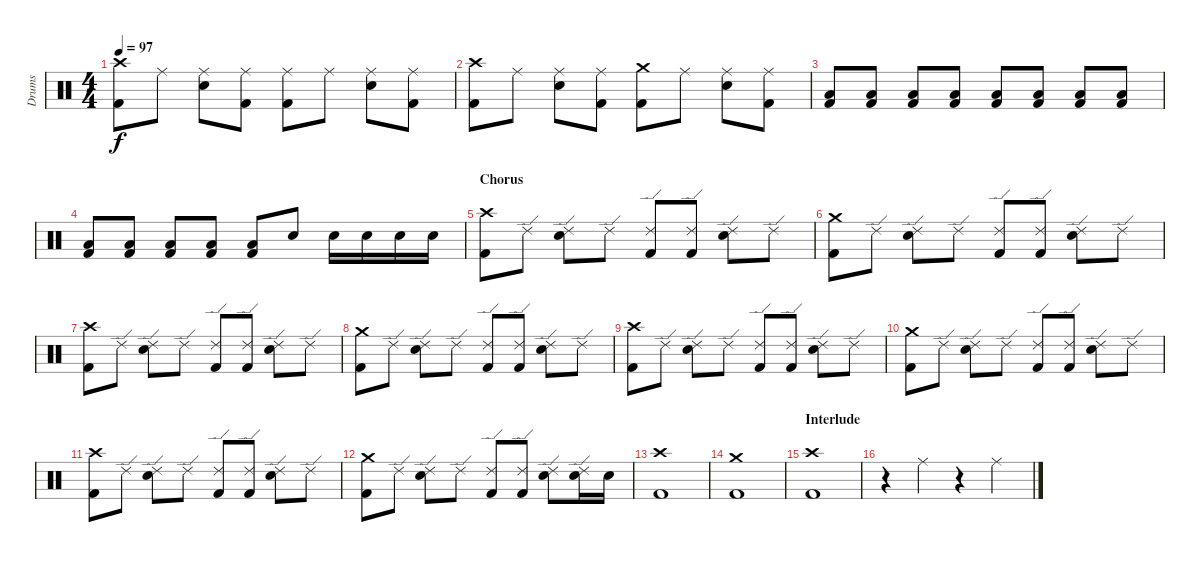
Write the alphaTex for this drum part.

\track ("Drums" "Drums") {instrument percussion}
\staff {score}
\articulation defaults
\ts (4 4)
\tempo 97
\clef neutral
\ks c
("Crash high (hit)" "Kick (hit) 2").8{dy f} "Ride (middle)".8 ("Ride (middle)" "Snare (hit) 2").8 ("Ride (middle)" "Kick (hit) 2").8 ("Ride (middle)" "Kick (hit) 2").8 "Ride (middle)".8 ("Ride (middle)" "Snare (hit) 2").8 ("Ride (middle)" "Kick (hit) 2").8 |
("Crash high (hit)" "Kick (hit) 2").8 "Ride (middle)".8 ("Ride (middle)" "Snare (hit) 2").8 ("Ride (middle)" "Kick (hit) 2").8 ("Crash medium (hit)" "Kick (hit) 2").8 "Ride (middle)".8 ("Ride (middle)" "Snare (hit) 2").8 ("Ride (middle)" "Kick (hit) 2").8 |
("Low Tom (hit)" "Kick (hit) 2").8 ("Low Tom (hit)" "Kick (hit) 2").8 ("Low Tom (hit)" "Kick (hit) 2").8 ("Low Tom (hit)" "Kick (hit) 2").8 ("Low Tom (hit)" "Kick (hit) 2").8 ("Low Tom (hit)" "Kick (hit) 2").8 ("Low Tom (hit)" "Kick (hit) 2").8 ("Low Tom (hit)" "Kick (hit) 2").8 |
("Low Tom (hit)" "Kick (hit) 2").8 ("Low Tom (hit)" "Kick (hit) 2").8 ("Low Tom (hit)" "Kick (hit) 2").8 ("Low Tom (hit)" "Kick (hit) 2").8 ("Low Tom (hit)" "Kick (hit) 2").8 "Snare (hit) 2".8 "Snare (hit) 2".16 "Snare (hit) 2".16 "Snare (hit) 2".16 "Snare (hit) 2".16 |
\section ("" "Chorus")
("Crash high (hit)" "Kick (hit) 2").8 "Ride (edge) 2".8 ("Ride (edge) 2" "Snare (hit) 2").8 "Ride (edge) 2".8 ("Ride (edge) 2" "Kick (hit) 2").8 ("Ride (edge) 2" "Kick (hit) 2").8 ("Ride (edge) 2" "Snare (hit) 2").8 "Ride (edge) 2".8 |
("Crash medium (hit)" "Kick (hit) 2").8 "Ride (edge) 2".8 ("Ride (edge) 2" "Snare (hit) 2").8 "Ride (edge) 2".8 ("Ride (edge) 2" "Kick (hit) 2").8 ("Ride (edge) 2" "Kick (hit) 2").8 ("Ride (edge) 2" "Snare (hit) 2").8 "Ride (edge) 2".8 |
("Crash high (hit)" "Kick (hit) 2").8 "Ride (edge) 2".8 ("Ride (edge) 2" "Snare (hit) 2").8 "Ride (edge) 2".8 ("Ride (edge) 2" "Kick (hit) 2").8 ("Ride (edge) 2" "Kick (hit) 2").8 ("Ride (edge) 2" "Snare (hit) 2").8 "Ride (edge) 2".8 |
("Crash medium (hit)" "Kick (hit) 2").8 "Ride (edge) 2".8 ("Ride (edge) 2" "Snare (hit) 2").8 "Ride (edge) 2".8 ("Ride (edge) 2" "Kick (hit) 2").8 ("Ride (edge) 2" "Kick (hit) 2").8 ("Ride (edge) 2" "Snare (hit) 2").8 "Ride (edge) 2".8 |
("Crash high (hit)" "Kick (hit) 2").8 "Ride (edge) 2".8 ("Ride (edge) 2" "Snare (hit) 2").8 "Ride (edge) 2".8 ("Ride (edge) 2" "Kick (hit) 2").8 ("Ride (edge) 2" "Kick (hit) 2").8 ("Ride (edge) 2" "Snare (hit) 2").8 "Ride (edge) 2".8 |
("Crash medium (hit)" "Kick (hit) 2").8 "Ride (edge) 2".8 ("Ride (edge) 2" "Snare (hit) 2").8 "Ride (edge) 2".8 ("Ride (edge) 2" "Kick (hit) 2").8 ("Ride (edge) 2" "Kick (hit) 2").8 ("Ride (edge) 2" "Snare (hit) 2").8 "Ride (edge) 2".8 |
("Crash high (hit)" "Kick (hit) 2").8 "Ride (edge) 2".8 ("Ride (edge) 2" "Snare (hit) 2").8 "Ride (edge) 2".8 ("Ride (edge) 2" "Kick (hit) 2").8 ("Ride (edge) 2" "Kick (hit) 2").8 ("Ride (edge) 2" "Snare (hit) 2").8 "Ride (edge) 2".8 |
("Crash medium (hit)" "Kick (hit) 2").8 "Ride (edge) 2".8 ("Ride (edge) 2" "Snare (hit) 2").8 "Ride (edge) 2".8 ("Ride (edge) 2" "Kick (hit) 2").8 ("Ride (edge) 2" "Kick (hit) 2").8 ("Ride (edge) 2" "Snare (hit) 2").8 ("Ride (edge) 2" "Snare (hit) 2").16 "Snare (hit) 2".16 |
("Crash high (hit)" "Kick (hit) 2").1 |
("Crash medium (hit)" "Kick (hit) 2").1 |
\section ("" "Interlude")
("Crash high (hit)" "Kick (hit) 2").1 |
r.4 "Ride (middle)".4 r.4 "Ride (middle)".4
